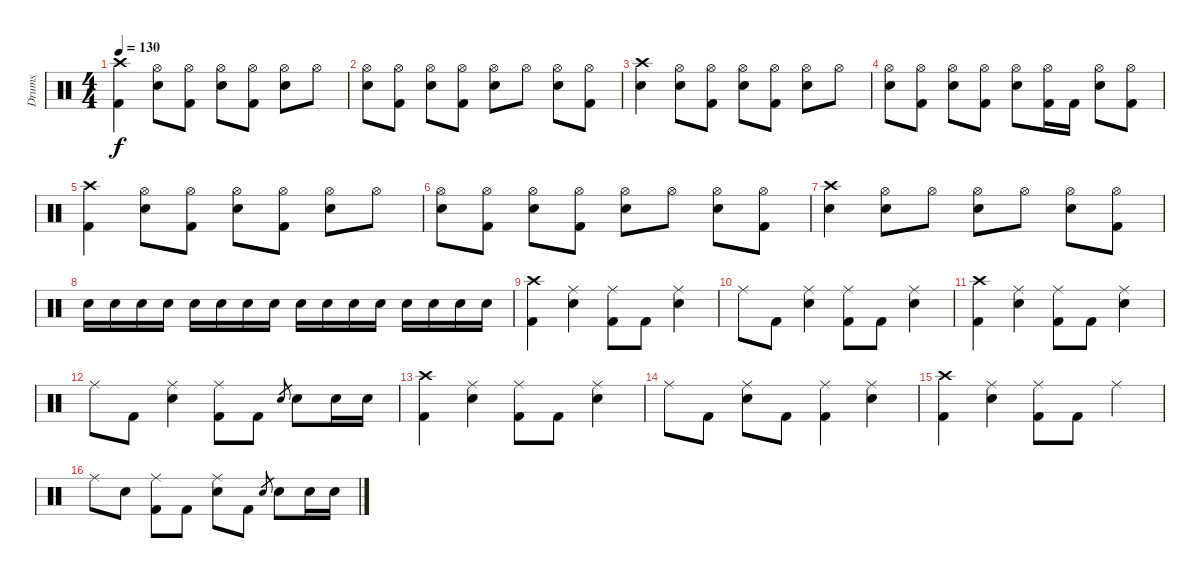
\track ("Drums" "Drums") {instrument percussion}
\staff {score}
\articulation defaults
\ts (4 4)
\tempo 130
\clef neutral
\ks c
("Crash high (hit)" "Kick (hit) 2").4{dy f} ("Hi-Hat (open)" "Electric Snare (hit)").8 ("Hi-Hat (open)" "Kick (hit) 2").8 ("Hi-Hat (open)" "Electric Snare (hit)").8 ("Hi-Hat (open)" "Kick (hit) 2").8 ("Hi-Hat (open)" "Electric Snare (hit)").8 "Hi-Hat (open)".8 |
("Hi-Hat (open)" "Electric Snare (hit)").8 ("Hi-Hat (open)" "Kick (hit) 2").8 ("Hi-Hat (open)" "Electric Snare (hit)").8 ("Hi-Hat (open)" "Kick (hit) 2").8 ("Hi-Hat (open)" "Electric Snare (hit)").8 "Hi-Hat (open)".8 ("Hi-Hat (open)" "Electric Snare (hit)").8 ("Hi-Hat (open)" "Kick (hit) 2").8 |
("Crash high (hit)" "Electric Snare (hit)").4 ("Hi-Hat (open)" "Electric Snare (hit)").8 ("Hi-Hat (open)" "Kick (hit) 2").8 ("Hi-Hat (open)" "Electric Snare (hit)").8 ("Hi-Hat (open)" "Kick (hit) 2").8 ("Hi-Hat (open)" "Electric Snare (hit)").8 "Hi-Hat (open)".8 |
("Hi-Hat (open)" "Electric Snare (hit)").8 ("Hi-Hat (open)" "Kick (hit) 2").8 ("Hi-Hat (open)" "Electric Snare (hit)").8 ("Hi-Hat (open)" "Kick (hit) 2").8 ("Hi-Hat (open)" "Electric Snare (hit)").8 ("Hi-Hat (open)" "Kick (hit) 2").16 "Kick (hit) 2".16 ("Hi-Hat (open)" "Electric Snare (hit)").8 ("Hi-Hat (open)" "Kick (hit) 2").8 |
("Crash high (hit)" "Kick (hit) 2").4 ("Hi-Hat (open)" "Electric Snare (hit)").8 ("Hi-Hat (open)" "Kick (hit) 2").8 ("Hi-Hat (open)" "Electric Snare (hit)").8 ("Hi-Hat (open)" "Kick (hit) 2").8 ("Hi-Hat (open)" "Electric Snare (hit)").8 "Hi-Hat (open)".8 |
("Hi-Hat (open)" "Electric Snare (hit)").8 ("Hi-Hat (open)" "Kick (hit) 2").8 ("Hi-Hat (open)" "Electric Snare (hit)").8 ("Hi-Hat (open)" "Kick (hit) 2").8 ("Hi-Hat (open)" "Electric Snare (hit)").8 "Hi-Hat (open)".8 ("Hi-Hat (open)" "Electric Snare (hit)").8 ("Hi-Hat (open)" "Kick (hit) 2").8 |
("Crash high (hit)" "Electric Snare (hit)").4 ("Hi-Hat (open)" "Electric Snare (hit)").8 "Hi-Hat (open)".8 ("Hi-Hat (open)" "Electric Snare (hit)").8 "Hi-Hat (open)".8 ("Hi-Hat (open)" "Electric Snare (hit)").8 ("Hi-Hat (open)" "Kick (hit) 2").8 |
"Electric Snare (hit)".16 "Electric Snare (hit)".16 "Electric Snare (hit)".16 "Electric Snare (hit)".16 "Electric Snare (hit)".16 "Electric Snare (hit)".16 "Electric Snare (hit)".16 "Electric Snare (hit)".16 "Electric Snare (hit)".16 "Electric Snare (hit)".16 "Electric Snare (hit)".16 "Electric Snare (hit)".16 "Electric Snare (hit)".16 "Electric Snare (hit)".16 "Electric Snare (hit)".16 "Electric Snare (hit)".16 |
("Crash high (hit)" "Kick (hit) 2").4 ("Ride (middle)" "Electric Snare (hit)").4 ("Ride (middle)" "Kick (hit) 2").8 "Kick (hit) 2".8 ("Ride (middle)" "Electric Snare (hit)").4 |
"Ride (middle)".8 "Kick (hit) 2".8 ("Ride (middle)" "Electric Snare (hit)").4 ("Ride (middle)" "Kick (hit) 2").8 "Kick (hit) 2".8 ("Ride (middle)" "Electric Snare (hit)").4 |
("Crash high (hit)" "Kick (hit) 2").4 ("Ride (middle)" "Electric Snare (hit)").4 ("Ride (middle)" "Kick (hit) 2").8 "Kick (hit) 2".8 ("Ride (middle)" "Electric Snare (hit)").4 |
"Ride (middle)".8 "Kick (hit) 2".8 ("Ride (middle)" "Electric Snare (hit)").4 ("Ride (middle)" "Kick (hit) 2").8 "Kick (hit) 2".8 "Electric Snare (hit)".8{gr} "Electric Snare (hit)".8 "Electric Snare (hit)".16 "Electric Snare (hit)".16 |
("Crash high (hit)" "Kick (hit) 2").4 ("Ride (middle)" "Electric Snare (hit)").4 ("Ride (middle)" "Kick (hit) 2").8 "Kick (hit) 2".8 ("Ride (middle)" "Electric Snare (hit)").4 |
"Ride (middle)".8 "Kick (hit) 2".8 ("Ride (middle)" "Electric Snare (hit)").8 "Kick (hit) 2".8 ("Ride (middle)" "Kick (hit) 2").4 ("Ride (middle)" "Electric Snare (hit)").4 |
("Crash high (hit)" "Kick (hit) 2").4 ("Ride (middle)" "Electric Snare (hit)").4 ("Ride (middle)" "Kick (hit) 2").8 "Kick (hit) 2".8 "Ride (middle)".4 |
"Ride (middle)".8 "Electric Snare (hit)".8 ("Ride (middle)" "Kick (hit) 2").8 "Kick (hit) 2".8 ("Ride (middle)" "Electric Snare (hit)").8 "Kick (hit) 2".8 "Electric Snare (hit)".8{gr} "Electric Snare (hit)".8 "Electric Snare (hit)".16 "Electric Snare (hit)".16
